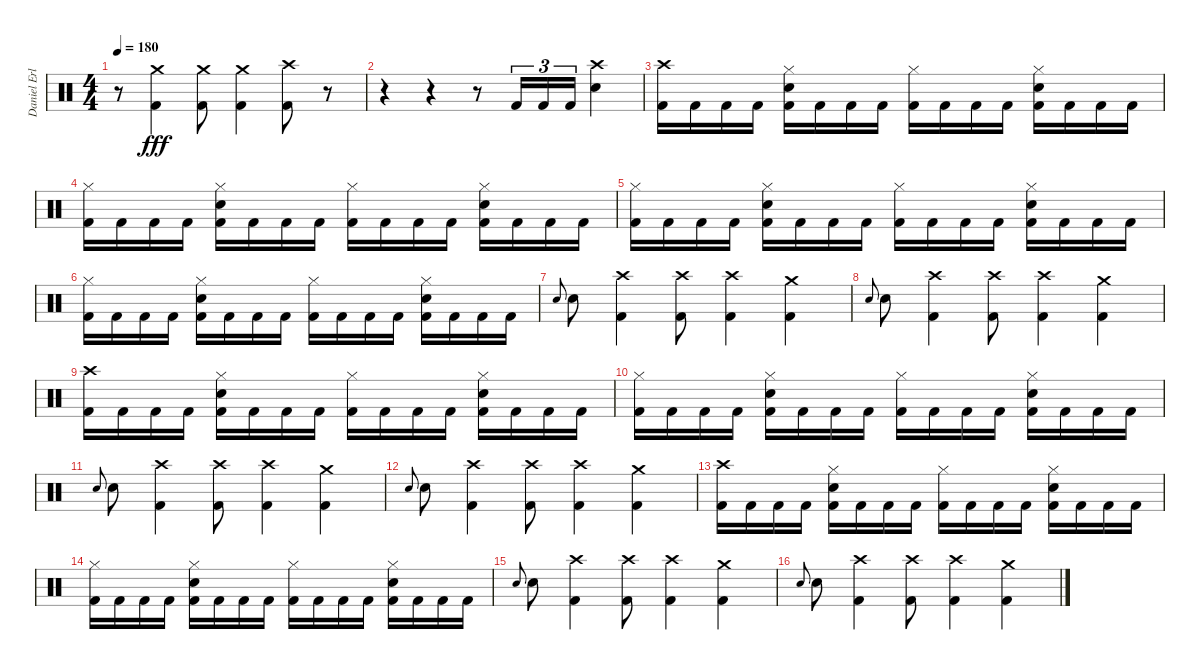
\track ("Daniel Erlandsson" "Daniel Erl") {instrument percussion}
\staff {score}
\articulation defaults
\ts (4 4)
\tempo 180
\clef neutral
\ks c
r.8{dy fff} ("Crash medium (hit)" "Kick (hit) 2").4{volume 16} ("Crash medium (hit)" "Kick (hit) 2").8 ("Crash medium (hit)" "Kick (hit) 2").4 ("Crash high (hit)" "Kick (hit) 2").8 r.8 |
r.4 r.4 r.8 "Kick (hit) 2".16{tu (3 2)} "Kick (hit) 2".16{tu (3 2)} "Kick (hit) 2".16{tu (3 2)} ("Crash high (hit)" "Electric Snare (hit)").4 |
("Crash high (hit)" "Kick (hit) 2").16 "Kick (hit) 2".16 "Kick (hit) 2".16 "Kick (hit) 2".16 ("Hi-Hat (closed)" "Electric Snare (hit)" "Kick (hit) 2").16 "Kick (hit) 2".16 "Kick (hit) 2".16 "Kick (hit) 2".16 ("Hi-Hat (closed)" "Kick (hit) 2").16 "Kick (hit) 2".16 "Kick (hit) 2".16 "Kick (hit) 2".16 ("Hi-Hat (closed)" "Electric Snare (hit)" "Kick (hit) 2").16 "Kick (hit) 2".16 "Kick (hit) 2".16 "Kick (hit) 2".16 |
("Hi-Hat (closed)" "Kick (hit) 2").16 "Kick (hit) 2".16 "Kick (hit) 2".16 "Kick (hit) 2".16 ("Hi-Hat (closed)" "Electric Snare (hit)" "Kick (hit) 2").16 "Kick (hit) 2".16 "Kick (hit) 2".16 "Kick (hit) 2".16 ("Hi-Hat (closed)" "Kick (hit) 2").16 "Kick (hit) 2".16 "Kick (hit) 2".16 "Kick (hit) 2".16 ("Hi-Hat (closed)" "Electric Snare (hit)" "Kick (hit) 2").16 "Kick (hit) 2".16 "Kick (hit) 2".16 "Kick (hit) 2".16 |
("Hi-Hat (closed)" "Kick (hit) 2").16 "Kick (hit) 2".16 "Kick (hit) 2".16 "Kick (hit) 2".16 ("Hi-Hat (closed)" "Electric Snare (hit)" "Kick (hit) 2").16 "Kick (hit) 2".16 "Kick (hit) 2".16 "Kick (hit) 2".16 ("Hi-Hat (closed)" "Kick (hit) 2").16 "Kick (hit) 2".16 "Kick (hit) 2".16 "Kick (hit) 2".16 ("Hi-Hat (closed)" "Electric Snare (hit)" "Kick (hit) 2").16 "Kick (hit) 2".16 "Kick (hit) 2".16 "Kick (hit) 2".16 |
("Hi-Hat (closed)" "Kick (hit) 2").16 "Kick (hit) 2".16 "Kick (hit) 2".16 "Kick (hit) 2".16 ("Hi-Hat (closed)" "Electric Snare (hit)" "Kick (hit) 2").16 "Kick (hit) 2".16 "Kick (hit) 2".16 "Kick (hit) 2".16 ("Hi-Hat (closed)" "Kick (hit) 2").16 "Kick (hit) 2".16 "Kick (hit) 2".16 "Kick (hit) 2".16 ("Hi-Hat (closed)" "Electric Snare (hit)" "Kick (hit) 2").16 "Kick (hit) 2".16 "Kick (hit) 2".16 "Kick (hit) 2".16 |
"Electric Snare (hit)".8{gr onbeat} "Electric Snare (hit)".8 ("Crash high (hit)" "Kick (hit) 2").4 ("Crash high (hit)" "Kick (hit) 2").8 ("Crash high (hit)" "Kick (hit) 2").4 ("Crash medium (hit)" "Kick (hit) 2").4 |
"Electric Snare (hit)".8{gr onbeat} "Electric Snare (hit)".8 ("Crash high (hit)" "Kick (hit) 2").4 ("Crash high (hit)" "Kick (hit) 2").8 ("Crash high (hit)" "Kick (hit) 2").4 ("Crash medium (hit)" "Kick (hit) 2").4 |
("Crash high (hit)" "Kick (hit) 2").16 "Kick (hit) 2".16 "Kick (hit) 2".16 "Kick (hit) 2".16 ("Hi-Hat (closed)" "Electric Snare (hit)" "Kick (hit) 2").16 "Kick (hit) 2".16 "Kick (hit) 2".16 "Kick (hit) 2".16 ("Hi-Hat (closed)" "Kick (hit) 2").16 "Kick (hit) 2".16 "Kick (hit) 2".16 "Kick (hit) 2".16 ("Hi-Hat (closed)" "Electric Snare (hit)" "Kick (hit) 2").16 "Kick (hit) 2".16 "Kick (hit) 2".16 "Kick (hit) 2".16 |
("Hi-Hat (closed)" "Kick (hit) 2").16 "Kick (hit) 2".16 "Kick (hit) 2".16 "Kick (hit) 2".16 ("Hi-Hat (closed)" "Electric Snare (hit)" "Kick (hit) 2").16 "Kick (hit) 2".16 "Kick (hit) 2".16 "Kick (hit) 2".16 ("Hi-Hat (closed)" "Kick (hit) 2").16 "Kick (hit) 2".16 "Kick (hit) 2".16 "Kick (hit) 2".16 ("Hi-Hat (closed)" "Electric Snare (hit)" "Kick (hit) 2").16 "Kick (hit) 2".16 "Kick (hit) 2".16 "Kick (hit) 2".16 |
"Electric Snare (hit)".8{gr onbeat} "Electric Snare (hit)".8 ("Crash high (hit)" "Kick (hit) 2").4 ("Crash high (hit)" "Kick (hit) 2").8 ("Crash high (hit)" "Kick (hit) 2").4 ("Crash medium (hit)" "Kick (hit) 2").4 |
"Electric Snare (hit)".8{gr onbeat} "Electric Snare (hit)".8 ("Crash high (hit)" "Kick (hit) 2").4 ("Crash high (hit)" "Kick (hit) 2").8 ("Crash high (hit)" "Kick (hit) 2").4 ("Crash medium (hit)" "Kick (hit) 2").4 |
("Crash high (hit)" "Kick (hit) 2").16 "Kick (hit) 2".16 "Kick (hit) 2".16 "Kick (hit) 2".16 ("Hi-Hat (closed)" "Electric Snare (hit)" "Kick (hit) 2").16 "Kick (hit) 2".16 "Kick (hit) 2".16 "Kick (hit) 2".16 ("Hi-Hat (closed)" "Kick (hit) 2").16 "Kick (hit) 2".16 "Kick (hit) 2".16 "Kick (hit) 2".16 ("Hi-Hat (closed)" "Electric Snare (hit)" "Kick (hit) 2").16 "Kick (hit) 2".16 "Kick (hit) 2".16 "Kick (hit) 2".16 |
("Hi-Hat (closed)" "Kick (hit) 2").16 "Kick (hit) 2".16 "Kick (hit) 2".16 "Kick (hit) 2".16 ("Hi-Hat (closed)" "Electric Snare (hit)" "Kick (hit) 2").16 "Kick (hit) 2".16 "Kick (hit) 2".16 "Kick (hit) 2".16 ("Hi-Hat (closed)" "Kick (hit) 2").16 "Kick (hit) 2".16 "Kick (hit) 2".16 "Kick (hit) 2".16 ("Hi-Hat (closed)" "Electric Snare (hit)" "Kick (hit) 2").16 "Kick (hit) 2".16 "Kick (hit) 2".16 "Kick (hit) 2".16 |
"Electric Snare (hit)".8{gr onbeat} "Electric Snare (hit)".8 ("Crash high (hit)" "Kick (hit) 2").4 ("Crash high (hit)" "Kick (hit) 2").8 ("Crash high (hit)" "Kick (hit) 2").4 ("Crash medium (hit)" "Kick (hit) 2").4 |
"Electric Snare (hit)".8{gr onbeat} "Electric Snare (hit)".8 ("Crash high (hit)" "Kick (hit) 2").4 ("Crash high (hit)" "Kick (hit) 2").8 ("Crash high (hit)" "Kick (hit) 2").4 ("Crash medium (hit)" "Kick (hit) 2").4
